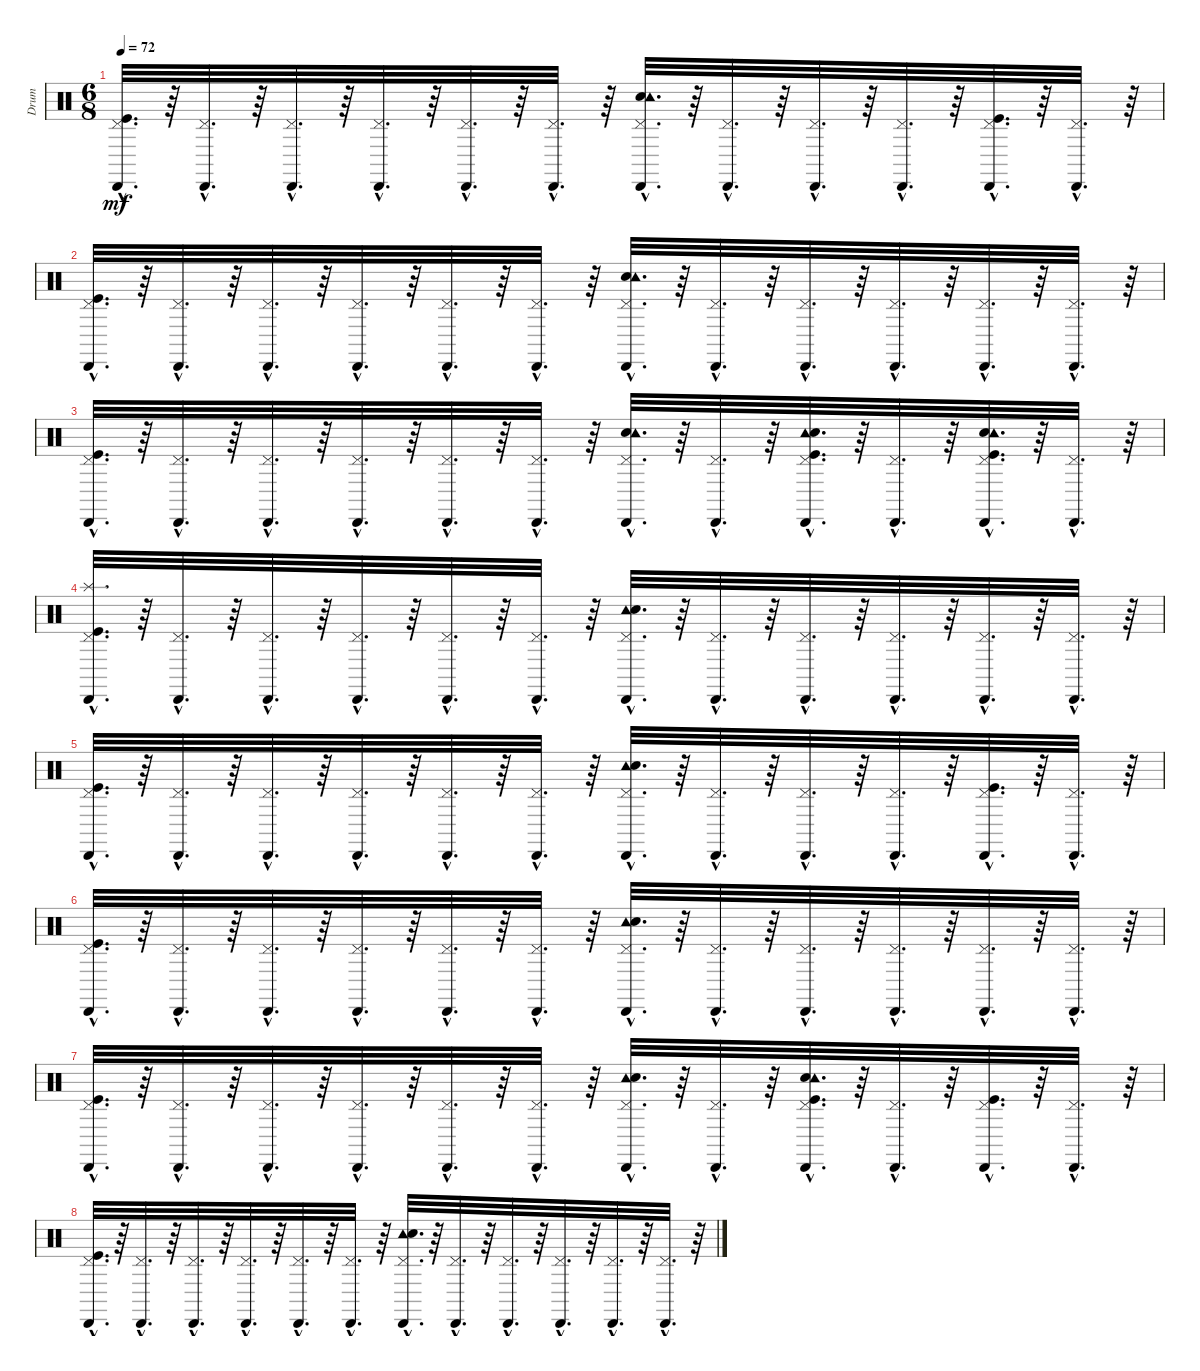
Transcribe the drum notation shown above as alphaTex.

\track ("Drum" "Drum") {instrument percussion}
\staff {score}
\articulation defaults
\ts (6 8)
\tempo 72
\clef neutral
\ks c
("Kick (hit)"{hac} "Pedal Hi-Hat (hit)"{hac} "Cabasa (hit)"{hac}).32{d dy mf} r.64 ("Pedal Hi-Hat (hit)"{hac} "Cabasa (hit)"{hac}).32{d} r.64 ("Pedal Hi-Hat (hit)"{hac} "Cabasa (hit)"{hac}).32{d} r.64 ("Pedal Hi-Hat (hit)"{hac} "Cabasa (hit)"{hac}).32{d} r.64 ("Pedal Hi-Hat (hit)"{hac} "Cabasa (hit)"{hac}).32{d} r.64 ("Pedal Hi-Hat (hit)"{hac} "Cabasa (hit)"{hac}).32{d} r.64 ("Electric Snare (hit)"{hac} "Tambourine (hit)"{hac} "Pedal Hi-Hat (hit)"{hac} "Cabasa (hit)"{hac}).32{d} r.64 ("Pedal Hi-Hat (hit)"{hac} "Cabasa (hit)"{hac}).32{d} r.64 ("Pedal Hi-Hat (hit)"{hac} "Cabasa (hit)"{hac}).32{d} r.64 ("Pedal Hi-Hat (hit)"{hac} "Cabasa (hit)"{hac}).32{d} r.64 ("Kick (hit)"{hac} "Pedal Hi-Hat (hit)"{hac} "Cabasa (hit)"{hac}).32{d} r.64 ("Pedal Hi-Hat (hit)"{hac} "Cabasa (hit)"{hac}).32{d} r.64 |
("Kick (hit)"{hac} "Pedal Hi-Hat (hit)"{hac} "Cabasa (hit)"{hac}).32{d} r.64 ("Pedal Hi-Hat (hit)"{hac} "Cabasa (hit)"{hac}).32{d} r.64 ("Pedal Hi-Hat (hit)"{hac} "Cabasa (hit)"{hac}).32{d} r.64 ("Pedal Hi-Hat (hit)"{hac} "Cabasa (hit)"{hac}).32{d} r.64 ("Pedal Hi-Hat (hit)"{hac} "Cabasa (hit)"{hac}).32{d} r.64 ("Pedal Hi-Hat (hit)"{hac} "Cabasa (hit)"{hac}).32{d} r.64 ("Electric Snare (hit)"{hac} "Tambourine (hit)"{hac} "Pedal Hi-Hat (hit)"{hac} "Cabasa (hit)"{hac}).32{d} r.64 ("Pedal Hi-Hat (hit)"{hac} "Cabasa (hit)"{hac}).32{d} r.64 ("Pedal Hi-Hat (hit)"{hac} "Cabasa (hit)"{hac}).32{d} r.64 ("Pedal Hi-Hat (hit)"{hac} "Cabasa (hit)"{hac}).32{d} r.64 ("Pedal Hi-Hat (hit)"{hac} "Cabasa (hit)"{hac}).32{d} r.64 ("Pedal Hi-Hat (hit)"{hac} "Cabasa (hit)"{hac}).32{d} r.64 |
("Kick (hit)"{hac} "Pedal Hi-Hat (hit)"{hac} "Cabasa (hit)"{hac}).32{d} r.64 ("Pedal Hi-Hat (hit)"{hac} "Cabasa (hit)"{hac}).32{d} r.64 ("Pedal Hi-Hat (hit)"{hac} "Cabasa (hit)"{hac}).32{d} r.64 ("Pedal Hi-Hat (hit)"{hac} "Cabasa (hit)"{hac}).32{d} r.64 ("Pedal Hi-Hat (hit)"{hac} "Cabasa (hit)"{hac}).32{d} r.64 ("Pedal Hi-Hat (hit)"{hac} "Cabasa (hit)"{hac}).32{d} r.64 ("Electric Snare (hit)"{hac} "Tambourine (hit)"{hac} "Pedal Hi-Hat (hit)"{hac} "Cabasa (hit)"{hac}).32{d} r.64 ("Pedal Hi-Hat (hit)"{hac} "Cabasa (hit)"{hac}).32{d} r.64 ("Kick (hit)"{hac} "Pedal Hi-Hat (hit)"{hac} "Cabasa (hit)"{hac} "Tambourine (hit)"{hac} "Electric Snare (hit)"{hac}).32{d} r.64 ("Pedal Hi-Hat (hit)"{hac} "Cabasa (hit)"{hac}).32{d} r.64 ("Kick (hit)"{hac} "Electric Snare (hit)"{hac} "Tambourine (hit)"{hac} "Pedal Hi-Hat (hit)"{hac} "Cabasa (hit)"{hac}).32{d} r.64 ("Pedal Hi-Hat (hit)"{hac} "Cabasa (hit)"{hac}).32{d} r.64 |
("Splash (hit)"{hac} "Cabasa (hit)"{hac} "Pedal Hi-Hat (hit)"{hac} "Kick (hit)"{hac}).32{d} r.64 ("Cabasa (hit)"{hac} "Pedal Hi-Hat (hit)"{hac}).32{d} r.64 ("Cabasa (hit)"{hac} "Pedal Hi-Hat (hit)"{hac}).32{d} r.64 ("Cabasa (hit)"{hac} "Pedal Hi-Hat (hit)"{hac}).32{d} r.64 ("Cabasa (hit)"{hac} "Pedal Hi-Hat (hit)"{hac}).32{d} r.64 ("Cabasa (hit)"{hac} "Pedal Hi-Hat (hit)"{hac}).32{d} r.64 ("Cabasa (hit)"{hac} "Pedal Hi-Hat (hit)"{hac} "Tambourine (hit)"{hac} "Electric Snare (hit)"{hac}).32{d} r.64 ("Cabasa (hit)"{hac} "Pedal Hi-Hat (hit)"{hac}).32{d} r.64 ("Cabasa (hit)"{hac} "Pedal Hi-Hat (hit)"{hac}).32{d} r.64 ("Cabasa (hit)"{hac} "Pedal Hi-Hat (hit)"{hac}).32{d} r.64 ("Cabasa (hit)"{hac} "Pedal Hi-Hat (hit)"{hac}).32{d} r.64 ("Cabasa (hit)"{hac} "Pedal Hi-Hat (hit)"{hac}).32{d} r.64 |
("Cabasa (hit)"{hac} "Pedal Hi-Hat (hit)"{hac} "Kick (hit)"{hac}).32{d} r.64 ("Cabasa (hit)"{hac} "Pedal Hi-Hat (hit)"{hac}).32{d} r.64 ("Cabasa (hit)"{hac} "Pedal Hi-Hat (hit)"{hac}).32{d} r.64 ("Cabasa (hit)"{hac} "Pedal Hi-Hat (hit)"{hac}).32{d} r.64 ("Cabasa (hit)"{hac} "Pedal Hi-Hat (hit)"{hac}).32{d} r.64 ("Cabasa (hit)"{hac} "Pedal Hi-Hat (hit)"{hac}).32{d} r.64 ("Cabasa (hit)"{hac} "Pedal Hi-Hat (hit)"{hac} "Tambourine (hit)"{hac} "Electric Snare (hit)"{hac}).32{d} r.64 ("Cabasa (hit)"{hac} "Pedal Hi-Hat (hit)"{hac}).32{d} r.64 ("Cabasa (hit)"{hac} "Pedal Hi-Hat (hit)"{hac}).32{d} r.64 ("Cabasa (hit)"{hac} "Pedal Hi-Hat (hit)"{hac}).32{d} r.64 ("Kick (hit)"{hac} "Cabasa (hit)"{hac} "Pedal Hi-Hat (hit)"{hac}).32{d} r.64 ("Cabasa (hit)"{hac} "Pedal Hi-Hat (hit)"{hac}).32{d} r.64 |
("Cabasa (hit)"{hac} "Pedal Hi-Hat (hit)"{hac} "Kick (hit)"{hac}).32{d} r.64 ("Cabasa (hit)"{hac} "Pedal Hi-Hat (hit)"{hac}).32{d} r.64 ("Cabasa (hit)"{hac} "Pedal Hi-Hat (hit)"{hac}).32{d} r.64 ("Cabasa (hit)"{hac} "Pedal Hi-Hat (hit)"{hac}).32{d} r.64 ("Cabasa (hit)"{hac} "Pedal Hi-Hat (hit)"{hac}).32{d} r.64 ("Cabasa (hit)"{hac} "Pedal Hi-Hat (hit)"{hac}).32{d} r.64 ("Cabasa (hit)"{hac} "Pedal Hi-Hat (hit)"{hac} "Tambourine (hit)"{hac} "Electric Snare (hit)"{hac}).32{d} r.64 ("Cabasa (hit)"{hac} "Pedal Hi-Hat (hit)"{hac}).32{d} r.64 ("Cabasa (hit)"{hac} "Pedal Hi-Hat (hit)"{hac}).32{d} r.64 ("Cabasa (hit)"{hac} "Pedal Hi-Hat (hit)"{hac}).32{d} r.64 ("Cabasa (hit)"{hac} "Pedal Hi-Hat (hit)"{hac}).32{d} r.64 ("Cabasa (hit)"{hac} "Pedal Hi-Hat (hit)"{hac}).32{d} r.64 |
("Cabasa (hit)"{hac} "Pedal Hi-Hat (hit)"{hac} "Kick (hit)"{hac}).32{d} r.64 ("Cabasa (hit)"{hac} "Pedal Hi-Hat (hit)"{hac}).32{d} r.64 ("Cabasa (hit)"{hac} "Pedal Hi-Hat (hit)"{hac}).32{d} r.64 ("Cabasa (hit)"{hac} "Pedal Hi-Hat (hit)"{hac}).32{d} r.64 ("Cabasa (hit)"{hac} "Pedal Hi-Hat (hit)"{hac}).32{d} r.64 ("Cabasa (hit)"{hac} "Pedal Hi-Hat (hit)"{hac}).32{d} r.64 ("Cabasa (hit)"{hac} "Pedal Hi-Hat (hit)"{hac} "Tambourine (hit)"{hac} "Electric Snare (hit)"{hac}).32{d} r.64 ("Cabasa (hit)"{hac} "Pedal Hi-Hat (hit)"{hac}).32{d} r.64 ("Kick (hit)"{hac} "Electric Snare (hit)"{hac} "Tambourine (hit)"{hac} "Cabasa (hit)"{hac} "Pedal Hi-Hat (hit)"{hac}).32{d} r.64 ("Cabasa (hit)"{hac} "Pedal Hi-Hat (hit)"{hac}).32{d} r.64 ("Kick (hit)"{hac} "Cabasa (hit)"{hac} "Pedal Hi-Hat (hit)"{hac}).32{d} r.64 ("Cabasa (hit)"{hac} "Pedal Hi-Hat (hit)"{hac}).32{d} r.64 |
("Cabasa (hit)"{hac} "Pedal Hi-Hat (hit)"{hac} "Kick (hit)"{hac}).32{d} r.64 ("Cabasa (hit)"{hac} "Pedal Hi-Hat (hit)"{hac}).32{d} r.64 ("Cabasa (hit)"{hac} "Pedal Hi-Hat (hit)"{hac}).32{d} r.64 ("Cabasa (hit)"{hac} "Pedal Hi-Hat (hit)"{hac}).32{d} r.64 ("Cabasa (hit)"{hac} "Pedal Hi-Hat (hit)"{hac}).32{d} r.64 ("Cabasa (hit)"{hac} "Pedal Hi-Hat (hit)"{hac}).32{d} r.64 ("Cabasa (hit)"{hac} "Pedal Hi-Hat (hit)"{hac} "Tambourine (hit)"{hac} "Electric Snare (hit)"{hac}).32{d} r.64 ("Cabasa (hit)"{hac} "Pedal Hi-Hat (hit)"{hac}).32{d} r.64 ("Cabasa (hit)"{hac} "Pedal Hi-Hat (hit)"{hac}).32{d} r.64 ("Cabasa (hit)"{hac} "Pedal Hi-Hat (hit)"{hac}).32{d} r.64 ("Cabasa (hit)"{hac} "Pedal Hi-Hat (hit)"{hac}).32{d} r.64 ("Cabasa (hit)"{hac} "Pedal Hi-Hat (hit)"{hac}).32{d} r.64
